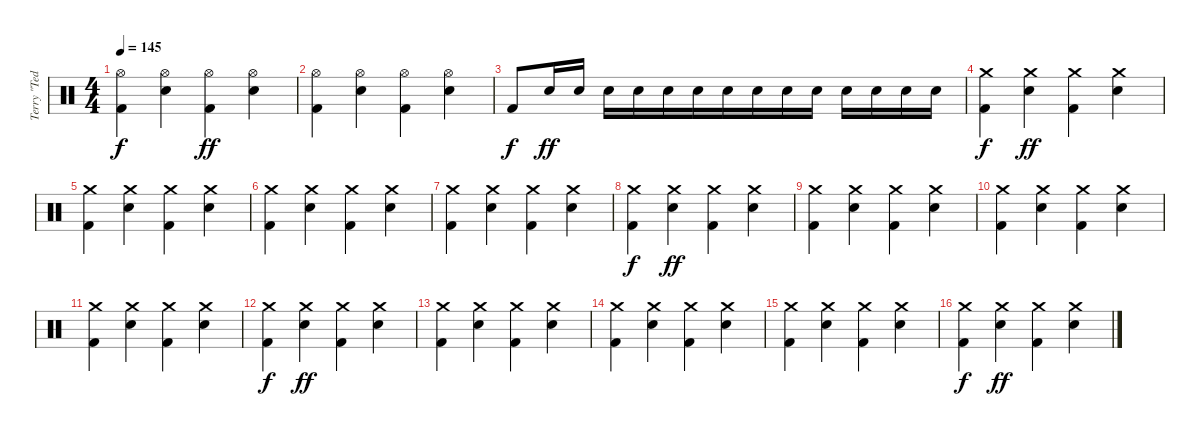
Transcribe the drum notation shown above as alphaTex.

\track ("Terry \"Ted\" Bozzio" "Terry \"Ted") {instrument percussion}
\staff {score}
\articulation defaults
\ts (4 4)
\tempo 145
\clef neutral
\ks c
("Hi-Hat (open)" "Kick (hit) 2").4{dy f beam merge} ("Hi-Hat (open)" "Electric Snare (hit)").4 ("Hi-Hat (open)" "Kick (hit) 2").4{dy ff} ("Hi-Hat (open)" "Electric Snare (hit)").4 |
("Hi-Hat (open)" "Kick (hit) 2").4 ("Hi-Hat (open)" "Electric Snare (hit)").4{beam merge} ("Hi-Hat (open)" "Kick (hit) 2").4 ("Hi-Hat (open)" "Electric Snare (hit)").4 |
"Kick (hit) 2".8{dy f} "Electric Snare (hit)".16{dy ff} "Electric Snare (hit)".16 "Electric Snare (hit)".16 "Electric Snare (hit)".16 "Electric Snare (hit)".16 "Electric Snare (hit)".16{beam merge} "Electric Snare (hit)".16 "Electric Snare (hit)".16 "Electric Snare (hit)".16 "Electric Snare (hit)".16 "Electric Snare (hit)".16 "Electric Snare (hit)".16{beam merge} "Electric Snare (hit)".16 "Electric Snare (hit)".16 |
("Crash medium (hit)" "Kick (hit) 2").4{dy f} ("Crash medium (hit)" "Electric Snare (hit)").4{dy ff beam merge} ("Crash medium (hit)" "Kick (hit) 2").4 ("Crash medium (hit)" "Electric Snare (hit)").4 |
("Crash medium (hit)" "Kick (hit) 2").4{beam merge} ("Crash medium (hit)" "Electric Snare (hit)").4 ("Crash medium (hit)" "Kick (hit) 2").4 ("Crash medium (hit)" "Electric Snare (hit)").4 |
("Crash medium (hit)" "Kick (hit) 2").4 ("Crash medium (hit)" "Electric Snare (hit)").4{beam merge} ("Crash medium (hit)" "Kick (hit) 2").4 ("Crash medium (hit)" "Electric Snare (hit)").4 |
("Crash medium (hit)" "Kick (hit) 2").4{beam merge} ("Crash medium (hit)" "Electric Snare (hit)").4 ("Crash medium (hit)" "Kick (hit) 2").4 ("Crash medium (hit)" "Electric Snare (hit)").4 |
("Crash medium (hit)" "Kick (hit) 2").4{dy f} ("Crash medium (hit)" "Electric Snare (hit)").4{dy ff beam merge} ("Crash medium (hit)" "Kick (hit) 2").4 ("Crash medium (hit)" "Electric Snare (hit)").4 |
("Crash medium (hit)" "Kick (hit) 2").4{beam merge} ("Crash medium (hit)" "Electric Snare (hit)").4 ("Crash medium (hit)" "Kick (hit) 2").4 ("Crash medium (hit)" "Electric Snare (hit)").4 |
("Crash medium (hit)" "Kick (hit) 2").4 ("Crash medium (hit)" "Electric Snare (hit)").4{beam merge} ("Crash medium (hit)" "Kick (hit) 2").4 ("Crash medium (hit)" "Electric Snare (hit)").4 |
("Crash medium (hit)" "Kick (hit) 2").4{beam merge} ("Crash medium (hit)" "Electric Snare (hit)").4 ("Crash medium (hit)" "Kick (hit) 2").4 ("Crash medium (hit)" "Electric Snare (hit)").4 |
("Crash medium (hit)" "Kick (hit) 2").4{dy f} ("Crash medium (hit)" "Electric Snare (hit)").4{dy ff beam merge} ("Crash medium (hit)" "Kick (hit) 2").4 ("Crash medium (hit)" "Electric Snare (hit)").4 |
("Crash medium (hit)" "Kick (hit) 2").4{beam merge} ("Crash medium (hit)" "Electric Snare (hit)").4 ("Crash medium (hit)" "Kick (hit) 2").4 ("Crash medium (hit)" "Electric Snare (hit)").4 |
("Crash medium (hit)" "Kick (hit) 2").4 ("Crash medium (hit)" "Electric Snare (hit)").4{beam merge} ("Crash medium (hit)" "Kick (hit) 2").4 ("Crash medium (hit)" "Electric Snare (hit)").4 |
("Crash medium (hit)" "Kick (hit) 2").4{beam merge} ("Crash medium (hit)" "Electric Snare (hit)").4 ("Crash medium (hit)" "Kick (hit) 2").4 ("Crash medium (hit)" "Electric Snare (hit)").4 |
("Crash medium (hit)" "Kick (hit) 2").4{dy f} ("Crash medium (hit)" "Electric Snare (hit)").4{dy ff beam merge} ("Crash medium (hit)" "Kick (hit) 2").4 ("Crash medium (hit)" "Electric Snare (hit)").4
